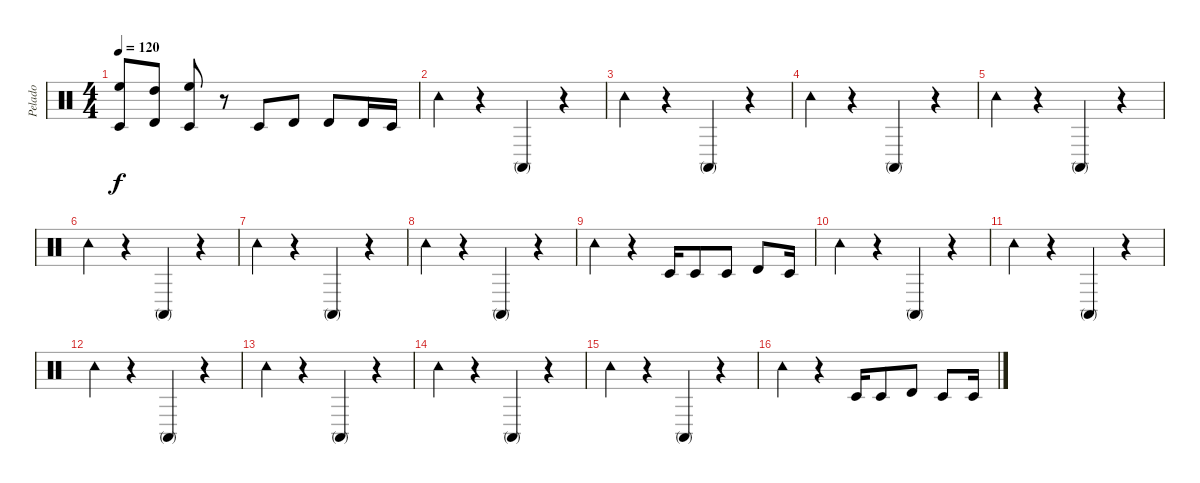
\track ("Pelado" "Pelado") {instrument percussion}
\staff {score}
\articulation defaults
\ts (4 4)
\tempo 120
\clef neutral
\ks c
("Timbale low (hit)" "High Floor Tom (hit)").8{dy f} ("Timbale high (hit)" "High Tom (hit)").8 ("Timbale low (hit)" "High Floor Tom (hit)").8 r.8 "Timbale low (hit)".8 "Timbale high (hit)".8 "Timbale high (hit)".8 "Timbale high (hit)".16 "Timbale low (hit)".16 |
"Tambourine (hit)".4 r.4 "Conga high (mute)".4 r.4 |
"Tambourine (hit)".4 r.4 "Conga high (mute)".4 r.4 |
"Tambourine (hit)".4 r.4 "Conga high (mute)".4 r.4 |
"Tambourine (hit)".4 r.4 "Conga high (mute)".4 r.4 |
"Tambourine (hit)".4 r.4 "Conga high (mute)".4 r.4 |
"Tambourine (hit)".4 r.4 "Conga high (mute)".4 r.4 |
"Tambourine (hit)".4 r.4 "Conga high (mute)".4 r.4 |
"Tambourine (hit)".4 r.4 "Timbale low (hit)".16 "Timbale low (hit)".8 "Timbale low (hit)".8 "Timbale high (hit)".8 "Timbale low (hit)".16 |
"Tambourine (hit)".4 r.4 "Conga high (mute)".4 r.4 |
"Tambourine (hit)".4 r.4 "Conga high (mute)".4 r.4 |
"Tambourine (hit)".4 r.4 "Conga high (mute)".4 r.4 |
"Tambourine (hit)".4 r.4 "Conga high (mute)".4 r.4 |
"Tambourine (hit)".4 r.4 "Conga high (mute)".4 r.4 |
"Tambourine (hit)".4 r.4 "Conga high (mute)".4 r.4 |
"Tambourine (hit)".4 r.4 "Timbale low (hit)".16 "Timbale low (hit)".8 "Timbale high (hit)".8 "Timbale low (hit)".8 "Timbale low (hit)".16
